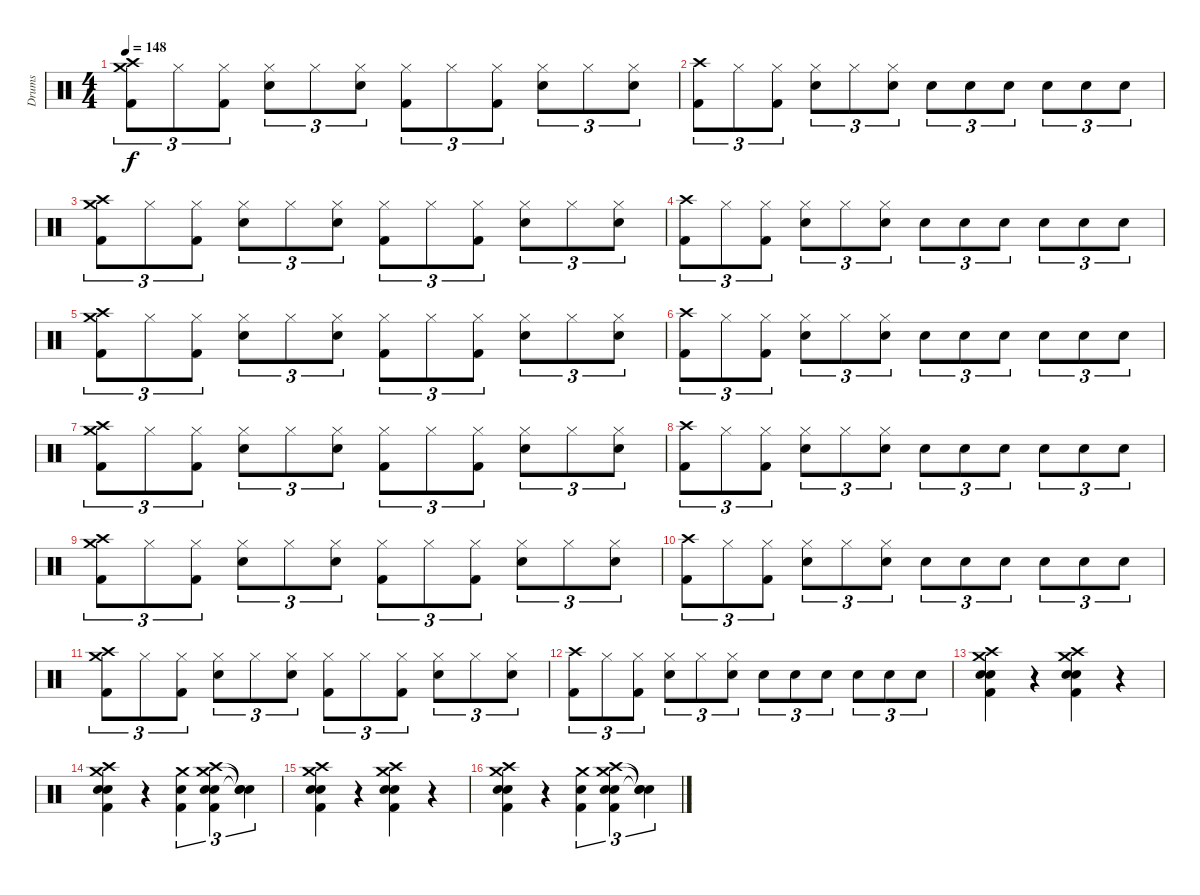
\track ("Drums" "Drums") {instrument percussion}
\staff {score}
\articulation defaults
\ts (4 4)
\tempo 148
\clef neutral
\ks c
("Crash medium (hit)" "Crash high (hit)" "Kick (hit) 2").8{tu (3 2) dy f} "Hi-Hat (closed)".8{tu (3 2)} ("Hi-Hat (closed)" "Kick (hit) 2").8{tu (3 2)} ("Hi-Hat (closed)" "Snare (hit) 2").8{tu (3 2)} "Hi-Hat (closed)".8{tu (3 2)} ("Hi-Hat (closed)" "Snare (hit) 2").8{tu (3 2)} ("Hi-Hat (closed)" "Kick (hit) 2").8{tu (3 2)} "Hi-Hat (closed)".8{tu (3 2)} ("Hi-Hat (closed)" "Kick (hit) 2").8{tu (3 2)} ("Hi-Hat (closed)" "Snare (hit) 2").8{tu (3 2)} "Hi-Hat (closed)".8{tu (3 2)} ("Hi-Hat (closed)" "Snare (hit) 2").8{tu (3 2)} |
("Crash high (hit)" "Kick (hit) 2").8{tu (3 2)} "Hi-Hat (closed)".8{tu (3 2)} ("Hi-Hat (closed)" "Kick (hit) 2").8{tu (3 2)} ("Hi-Hat (closed)" "Snare (hit) 2").8{tu (3 2)} "Hi-Hat (closed)".8{tu (3 2)} ("Hi-Hat (closed)" "Snare (hit) 2").8{tu (3 2)} "Snare (hit) 2".8{tu (3 2)} "Snare (hit) 2".8{tu (3 2)} "Snare (hit) 2".8{tu (3 2)} "Snare (hit) 2".8{tu (3 2)} "Snare (hit) 2".8{tu (3 2)} "Snare (hit) 2".8{tu (3 2)} |
("Crash medium (hit)" "Crash high (hit)" "Kick (hit) 2").8{tu (3 2)} "Hi-Hat (closed)".8{tu (3 2)} ("Hi-Hat (closed)" "Kick (hit) 2").8{tu (3 2)} ("Hi-Hat (closed)" "Snare (hit) 2").8{tu (3 2)} "Hi-Hat (closed)".8{tu (3 2)} ("Hi-Hat (closed)" "Snare (hit) 2").8{tu (3 2)} ("Hi-Hat (closed)" "Kick (hit) 2").8{tu (3 2)} "Hi-Hat (closed)".8{tu (3 2)} ("Hi-Hat (closed)" "Kick (hit) 2").8{tu (3 2)} ("Hi-Hat (closed)" "Snare (hit) 2").8{tu (3 2)} "Hi-Hat (closed)".8{tu (3 2)} ("Hi-Hat (closed)" "Snare (hit) 2").8{tu (3 2)} |
("Crash high (hit)" "Kick (hit) 2").8{tu (3 2)} "Hi-Hat (closed)".8{tu (3 2)} ("Hi-Hat (closed)" "Kick (hit) 2").8{tu (3 2)} ("Hi-Hat (closed)" "Snare (hit) 2").8{tu (3 2)} "Hi-Hat (closed)".8{tu (3 2)} ("Hi-Hat (closed)" "Snare (hit) 2").8{tu (3 2)} "Snare (hit) 2".8{tu (3 2)} "Snare (hit) 2".8{tu (3 2)} "Snare (hit) 2".8{tu (3 2)} "Snare (hit) 2".8{tu (3 2)} "Snare (hit) 2".8{tu (3 2)} "Snare (hit) 2".8{tu (3 2)} |
("Crash medium (hit)" "Crash high (hit)" "Kick (hit) 2").8{tu (3 2)} "Hi-Hat (closed)".8{tu (3 2)} ("Hi-Hat (closed)" "Kick (hit) 2").8{tu (3 2)} ("Hi-Hat (closed)" "Snare (hit) 2").8{tu (3 2)} "Hi-Hat (closed)".8{tu (3 2)} ("Hi-Hat (closed)" "Snare (hit) 2").8{tu (3 2)} ("Hi-Hat (closed)" "Kick (hit) 2").8{tu (3 2)} "Hi-Hat (closed)".8{tu (3 2)} ("Hi-Hat (closed)" "Kick (hit) 2").8{tu (3 2)} ("Hi-Hat (closed)" "Snare (hit) 2").8{tu (3 2)} "Hi-Hat (closed)".8{tu (3 2)} ("Hi-Hat (closed)" "Snare (hit) 2").8{tu (3 2)} |
("Crash high (hit)" "Kick (hit) 2").8{tu (3 2)} "Hi-Hat (closed)".8{tu (3 2)} ("Hi-Hat (closed)" "Kick (hit) 2").8{tu (3 2)} ("Hi-Hat (closed)" "Snare (hit) 2").8{tu (3 2)} "Hi-Hat (closed)".8{tu (3 2)} ("Hi-Hat (closed)" "Snare (hit) 2").8{tu (3 2)} "Snare (hit) 2".8{tu (3 2)} "Snare (hit) 2".8{tu (3 2)} "Snare (hit) 2".8{tu (3 2)} "Snare (hit) 2".8{tu (3 2)} "Snare (hit) 2".8{tu (3 2)} "Snare (hit) 2".8{tu (3 2)} |
("Crash medium (hit)" "Crash high (hit)" "Kick (hit) 2").8{tu (3 2)} "Hi-Hat (closed)".8{tu (3 2)} ("Hi-Hat (closed)" "Kick (hit) 2").8{tu (3 2)} ("Hi-Hat (closed)" "Snare (hit) 2").8{tu (3 2)} "Hi-Hat (closed)".8{tu (3 2)} ("Hi-Hat (closed)" "Snare (hit) 2").8{tu (3 2)} ("Hi-Hat (closed)" "Kick (hit) 2").8{tu (3 2)} "Hi-Hat (closed)".8{tu (3 2)} ("Hi-Hat (closed)" "Kick (hit) 2").8{tu (3 2)} ("Hi-Hat (closed)" "Snare (hit) 2").8{tu (3 2)} "Hi-Hat (closed)".8{tu (3 2)} ("Hi-Hat (closed)" "Snare (hit) 2").8{tu (3 2)} |
("Crash high (hit)" "Kick (hit) 2").8{tu (3 2)} "Hi-Hat (closed)".8{tu (3 2)} ("Hi-Hat (closed)" "Kick (hit) 2").8{tu (3 2)} ("Hi-Hat (closed)" "Snare (hit) 2").8{tu (3 2)} "Hi-Hat (closed)".8{tu (3 2)} ("Hi-Hat (closed)" "Snare (hit) 2").8{tu (3 2)} "Snare (hit) 2".8{tu (3 2)} "Snare (hit) 2".8{tu (3 2)} "Snare (hit) 2".8{tu (3 2)} "Snare (hit) 2".8{tu (3 2)} "Snare (hit) 2".8{tu (3 2)} "Snare (hit) 2".8{tu (3 2)} |
("Crash medium (hit)" "Crash high (hit)" "Kick (hit) 2").8{tu (3 2)} "Hi-Hat (closed)".8{tu (3 2)} ("Hi-Hat (closed)" "Kick (hit) 2").8{tu (3 2)} ("Hi-Hat (closed)" "Snare (hit) 2").8{tu (3 2)} "Hi-Hat (closed)".8{tu (3 2)} ("Hi-Hat (closed)" "Snare (hit) 2").8{tu (3 2)} ("Hi-Hat (closed)" "Kick (hit) 2").8{tu (3 2)} "Hi-Hat (closed)".8{tu (3 2)} ("Hi-Hat (closed)" "Kick (hit) 2").8{tu (3 2)} ("Hi-Hat (closed)" "Snare (hit) 2").8{tu (3 2)} "Hi-Hat (closed)".8{tu (3 2)} ("Hi-Hat (closed)" "Snare (hit) 2").8{tu (3 2)} |
("Crash high (hit)" "Kick (hit) 2").8{tu (3 2)} "Hi-Hat (closed)".8{tu (3 2)} ("Hi-Hat (closed)" "Kick (hit) 2").8{tu (3 2)} ("Hi-Hat (closed)" "Snare (hit) 2").8{tu (3 2)} "Hi-Hat (closed)".8{tu (3 2)} ("Hi-Hat (closed)" "Snare (hit) 2").8{tu (3 2)} "Snare (hit) 2".8{tu (3 2)} "Snare (hit) 2".8{tu (3 2)} "Snare (hit) 2".8{tu (3 2)} "Snare (hit) 2".8{tu (3 2)} "Snare (hit) 2".8{tu (3 2)} "Snare (hit) 2".8{tu (3 2)} |
("Crash medium (hit)" "Crash high (hit)" "Kick (hit) 2").8{tu (3 2)} "Hi-Hat (closed)".8{tu (3 2)} ("Hi-Hat (closed)" "Kick (hit) 2").8{tu (3 2)} ("Hi-Hat (closed)" "Snare (hit) 2").8{tu (3 2)} "Hi-Hat (closed)".8{tu (3 2)} ("Hi-Hat (closed)" "Snare (hit) 2").8{tu (3 2)} ("Hi-Hat (closed)" "Kick (hit) 2").8{tu (3 2)} "Hi-Hat (closed)".8{tu (3 2)} ("Hi-Hat (closed)" "Kick (hit) 2").8{tu (3 2)} ("Hi-Hat (closed)" "Snare (hit) 2").8{tu (3 2)} "Hi-Hat (closed)".8{tu (3 2)} ("Hi-Hat (closed)" "Snare (hit) 2").8{tu (3 2)} |
("Crash high (hit)" "Kick (hit) 2").8{tu (3 2)} "Hi-Hat (closed)".8{tu (3 2)} ("Hi-Hat (closed)" "Kick (hit) 2").8{tu (3 2)} ("Hi-Hat (closed)" "Snare (hit) 2").8{tu (3 2)} "Hi-Hat (closed)".8{tu (3 2)} ("Hi-Hat (closed)" "Snare (hit) 2").8{tu (3 2)} "Snare (hit) 2".8{tu (3 2)} "Snare (hit) 2".8{tu (3 2)} "Snare (hit) 2".8{tu (3 2)} "Snare (hit) 2".8{tu (3 2)} "Snare (hit) 2".8{tu (3 2)} "Snare (hit) 2".8{tu (3 2)} |
("Crash high (hit)" "Crash medium (hit)" "Snare (hit) 2" "Kick (hit) 2" "Snare (hit) 2").4 r.4 ("Crash high (hit)" "Crash medium (hit)" "Snare (hit) 2" "Kick (hit) 2" "Snare (hit) 2").4 r.4 |
("Crash high (hit)" "Crash medium (hit)" "Snare (hit) 2" "Kick (hit) 2" "Snare (hit) 2").4 r.4 ("Crash medium (hit)" "Kick (hit) 2" "Snare (hit) 2").4{tu (3 2)} ("Crash high (hit)" "Crash medium (hit)" "Snare (hit) 2" "Kick (hit) 2" "Snare (hit) 2").4{tu (3 2)} ("Snare (hit)"{t} "Snare (hit)"{t} "Snare (hit)"{t}).4{tu (3 2)} |
("Crash high (hit)" "Crash medium (hit)" "Snare (hit) 2" "Kick (hit) 2" "Snare (hit) 2").4 r.4 ("Crash high (hit)" "Crash medium (hit)" "Snare (hit) 2" "Kick (hit) 2" "Snare (hit) 2").4 r.4 |
("Crash high (hit)" "Crash medium (hit)" "Snare (hit) 2" "Kick (hit) 2" "Snare (hit) 2").4 r.4 ("Crash medium (hit)" "Kick (hit) 2" "Snare (hit) 2").4{tu (3 2)} ("Crash high (hit)" "Crash medium (hit)" "Snare (hit) 2" "Kick (hit) 2" "Snare (hit) 2").4{tu (3 2)} ("Snare (hit)"{t} "Snare (hit)"{t} "Snare (hit)"{t}).4{tu (3 2)}
